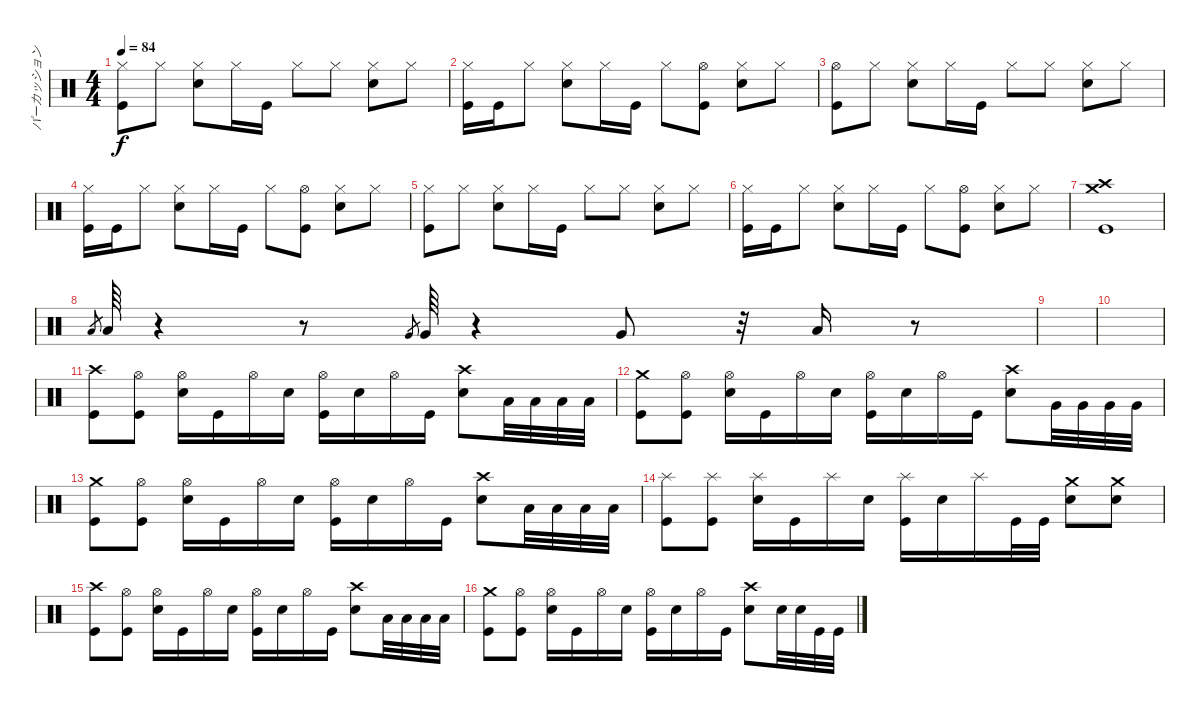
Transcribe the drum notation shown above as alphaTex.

\track ("パーカッション" "パーカッション") {instrument percussion}
\staff {score}
\articulation defaults
\ts (4 4)
\tempo 84
\clef neutral
\ks c
("Hi-Hat (closed)" "Kick (hit)").8{dy f} "Hi-Hat (closed)".8 ("Snare (hit) 2" "Hi-Hat (closed)").8 "Hi-Hat (closed)".16 "Kick (hit)".16 "Hi-Hat (closed)".8 "Hi-Hat (closed)".8 ("Hi-Hat (closed)" "Snare (hit) 2").8 "Hi-Hat (closed)".8 |
("Hi-Hat (closed)" "Kick (hit)").16 "Kick (hit)".16 "Hi-Hat (closed)".8 ("Hi-Hat (closed)" "Snare (hit) 2").8 "Hi-Hat (closed)".16 "Kick (hit)".16 "Hi-Hat (closed)".8 ("Kick (hit)" "Hi-Hat (open)").8 ("Snare (hit) 2" "Hi-Hat (closed)").8 "Hi-Hat (closed)".8 |
("Hi-Hat (open)" "Kick (hit)").8 "Hi-Hat (closed)".8 ("Snare (hit) 2" "Hi-Hat (closed)").8 "Hi-Hat (closed)".16 "Kick (hit)".16 "Hi-Hat (closed)".8 "Hi-Hat (closed)".8 ("Hi-Hat (closed)" "Snare (hit) 2").8 "Hi-Hat (closed)".8 |
("Hi-Hat (closed)" "Kick (hit)").16 "Kick (hit)".16 "Hi-Hat (closed)".8 ("Hi-Hat (closed)" "Snare (hit) 2").8 "Hi-Hat (closed)".16 "Kick (hit)".16 "Hi-Hat (closed)".8 ("Kick (hit)" "Hi-Hat (open)").8 ("Snare (hit) 2" "Hi-Hat (closed)").8 "Hi-Hat (closed)".8 |
("Hi-Hat (closed)" "Kick (hit)").8 "Hi-Hat (closed)".8 ("Snare (hit) 2" "Hi-Hat (closed)").8 "Hi-Hat (closed)".16 "Kick (hit)".16 "Hi-Hat (closed)".8 "Hi-Hat (closed)".8 ("Hi-Hat (closed)" "Snare (hit) 2").8 "Hi-Hat (closed)".8 |
("Hi-Hat (closed)" "Kick (hit)").16 "Kick (hit)".16 "Hi-Hat (closed)".8 ("Hi-Hat (closed)" "Snare (hit) 2").8 "Hi-Hat (closed)".16 "Kick (hit)".16 "Hi-Hat (closed)".8 ("Kick (hit)" "Hi-Hat (open)").8 ("Snare (hit) 2" "Hi-Hat (closed)").8 "Hi-Hat (closed)".8 |
("Crash high (hit)" "Kick (hit)" "Crash medium (hit)").1 |
"Low Tom (hit)".8{gr} "Low Tom (hit)".64 r.4 r.8 "Very Low Tom (hit)".8{gr} "Very Low Tom (hit)".64 r.4 "Very Low Tom (hit)".8 r.32 "Low Floor Tom (hit)".16 r.8 |
|
|
("Crash high (hit)" "Kick (hit)").8 ("Hi-Hat (open)" "Kick (hit)").8 ("Hi-Hat (open)" "Snare (hit) 2").16 "Kick (hit)".16 "Hi-Hat (open)".16 "Snare (hit) 2".16 ("Hi-Hat (open)" "Kick (hit)").16 "Snare (hit) 2".16 "Hi-Hat (open)".16 "Kick (hit)".16 ("Crash high (hit)" "Snare (hit) 2").8 "Low Tom (hit)".32 "Low Tom (hit)".32 "Low Tom (hit)".32 "Low Tom (hit)".32 |
("Crash medium (hit)" "Kick (hit)").8 ("Kick (hit)" "Hi-Hat (open)").8 ("Hi-Hat (open)" "Snare (hit) 2").16 "Kick (hit)".16 "Hi-Hat (open)".16 "Snare (hit) 2".16 ("Kick (hit)" "Hi-Hat (open)").16 "Snare (hit) 2".16 "Hi-Hat (open)".16 "Kick (hit)".16 ("Crash high (hit)" "Snare (hit) 2").8 "Very Low Tom (hit)".32 "Very Low Tom (hit)".32 "Very Low Tom (hit)".32 "Very Low Tom (hit)".32 |
("Crash medium (hit)" "Kick (hit)").8 ("Kick (hit)" "Hi-Hat (open)").8 ("Hi-Hat (open)" "Snare (hit) 2").16 "Kick (hit)".16 "Hi-Hat (open)".16 "Snare (hit) 2".16 ("Kick (hit)" "Hi-Hat (open)").16 "Snare (hit) 2".16 "Hi-Hat (open)".16 "Kick (hit)".16 ("Crash high (hit)" "Snare (hit) 2").8 "Low Floor Tom (hit)".32 "Low Floor Tom (hit)".32 "Low Floor Tom (hit)".32 "Low Floor Tom (hit)".32 |
("Splash (hit)" "Kick (hit)").8 ("Splash (hit)" "Kick (hit)").8 ("Splash (hit)" "Snare (hit) 2").16 "Kick (hit)".16 "Splash (hit)".16 "Snare (hit) 2".16 ("Splash (hit)" "Kick (hit)").16 "Snare (hit) 2".16 "Splash (hit)".16 "Kick (hit)".32 "Kick (hit)".32 ("Snare (hit) 2" "Crash medium (hit)").8 ("Snare (hit) 2" "Crash medium (hit)").8 |
("Crash high (hit)" "Kick (hit)").8 ("Hi-Hat (open)" "Kick (hit)").8 ("Hi-Hat (open)" "Snare (hit) 2").16 "Kick (hit)".16 "Hi-Hat (open)".16 "Snare (hit) 2".16 ("Hi-Hat (open)" "Kick (hit)").16 "Snare (hit) 2".16 "Hi-Hat (open)".16 "Kick (hit)".16 ("Crash high (hit)" "Snare (hit) 2").8 "Low Tom (hit)".32 "Low Tom (hit)".32 "Low Tom (hit)".32 "Low Tom (hit)".32 |
("Crash medium (hit)" "Kick (hit)").8 ("Kick (hit)" "Hi-Hat (open)").8 ("Hi-Hat (open)" "Snare (hit) 2").16 "Kick (hit)".16 "Hi-Hat (open)".16 "Snare (hit) 2".16 ("Kick (hit)" "Hi-Hat (open)").16 "Snare (hit) 2".16 "Hi-Hat (open)".16 "Kick (hit)".16 ("Crash high (hit)" "Snare (hit) 2").8 "Snare (hit) 2".32 "Snare (hit) 2".32 "Kick (hit)".32 "Kick (hit)".32
